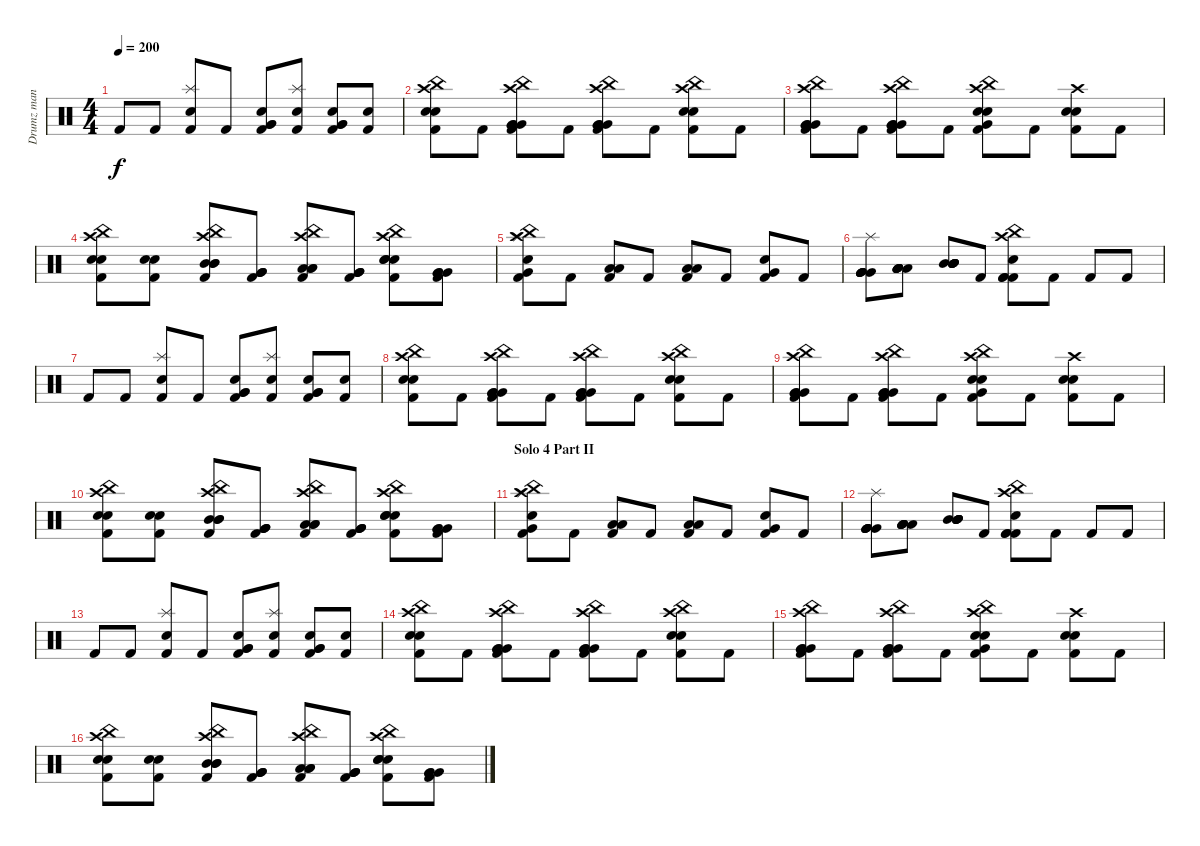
\track ("Drumz man" "Drumz man") {instrument percussion}
\staff {score}
\articulation defaults
\ts (4 4)
\tempo 200
\clef neutral
\ks c "Kick (hit) 2".8{dy f} "Kick (hit) 2".8
("Kick (hit) 2" "Splash (hit)" "Electric Snare (hit)").8 "Kick (hit) 2".8 ("Electric Snare (hit)" "Kick (hit) 2" "Very Low Tom (hit)" "Very Low Tom (hit)").8 ("Electric Snare (hit)" "Kick (hit) 2" "Splash (hit)").8 ("Electric Snare (hit)" "Kick (hit) 2" "Very Low Tom (hit)" "Very Low Tom (hit)").8 ("Electric Snare (hit)" "Kick (hit) 2").8 |
("Crash high (hit)" "China (hit)" "Kick (hit) 2" "Electric Snare (hit)" "Electric Snare (hit)").8 "Kick (hit) 2".8 ("Crash high (hit)" "China (hit)" "Kick (hit) 2" "Very Low Tom (hit)" "Very Low Tom (hit)" "Very Low Tom (hit)").8 "Kick (hit) 2".8 ("Crash high (hit)" "China (hit)" "Kick (hit) 2" "Very Low Tom (hit)" "Very Low Tom (hit)" "Very Low Tom (hit)").8 "Kick (hit) 2".8 ("Crash high (hit)" "China (hit)" "Kick (hit) 2" "Electric Snare (hit)" "Electric Snare (hit)").8 "Kick (hit) 2".8 |
("Crash high (hit)" "China (hit)" "Kick (hit) 2" "Very Low Tom (hit)" "Very Low Tom (hit)" "Very Low Tom (hit)").8 "Kick (hit) 2".8 ("Crash high (hit)" "China (hit)" "Kick (hit) 2" "Very Low Tom (hit)" "Very Low Tom (hit)" "Very Low Tom (hit)").8 "Kick (hit) 2".8 ("Crash high (hit)" "China (hit)" "Kick (hit) 2" "Very Low Tom (hit)" "Electric Snare (hit)" "Electric Snare (hit)").8 "Kick (hit) 2".8 ("Crash high (hit)" "Kick (hit) 2" "Electric Snare (hit)" "Electric Snare (hit)").8 "Kick (hit) 2".8 |
("Crash high (hit)" "China (hit)" "Kick (hit) 2" "Electric Snare (hit)" "Electric Snare (hit)").8 ("Kick (hit) 2" "Electric Snare (hit)" "Electric Snare (hit)").8 ("Crash high (hit)" "China (hit)" "Kick (hit) 2" "Mid Tom (hit)" "Mid Tom (hit)" "Mid Tom (hit)").8 ("Kick (hit) 2" "Very Low Tom (hit)" "Very Low Tom (hit)" "Very Low Tom (hit)").8 ("Crash high (hit)" "China (hit)" "Kick (hit) 2" "Low Floor Tom (hit)" "Low Floor Tom (hit)" "Low Floor Tom (hit)").8 ("Kick (hit) 2" "Very Low Tom (hit)" "Very Low Tom (hit)" "Very Low Tom (hit)").8 ("Crash high (hit)" "China (hit)" "Kick (hit) 2" "Electric Snare (hit)" "Electric Snare (hit)" "Electric Snare (hit)").8 ("Kick (hit) 2" "Very Low Tom (hit)" "Very Low Tom (hit)" "Very Low Tom (hit)").8 |
("China (hit)" "Crash high (hit)" "Kick (hit) 2" "Splash (hit)" "Very Low Tom (hit)" "Electric Snare (hit)").8 "Kick (hit) 2".8 ("Kick (hit) 2" "Low Floor Tom (hit)" "Low Floor Tom (hit)").8 "Kick (hit) 2".8 ("Kick (hit) 2" "Low Floor Tom (hit)" "Low Floor Tom (hit)").8 "Kick (hit) 2".8 ("Kick (hit) 2" "Very Low Tom (hit)" "Electric Snare (hit)").8 "Kick (hit) 2".8 |
("Very Low Tom (hit)" "Very Low Tom (hit)" "Very Low Tom (hit)" "Splash (hit)" "Very Low Tom (hit)" "Very Low Tom (hit)").8 ("Low Floor Tom (hit)" "Low Floor Tom (hit)" "Low Floor Tom (hit)" "Low Floor Tom (hit)" "Low Floor Tom (hit)" "Low Floor Tom (hit)").8 ("Mid Tom (hit)" "Mid Tom (hit)" "Mid Tom (hit)" "Mid Tom (hit)" "Mid Tom (hit)" "Mid Tom (hit)").8 "Kick (hit) 2".8 ("China (hit)" "Crash high (hit)" "Kick (hit) 2" "Kick (hit) 2" "Kick (hit) 2" "Electric Snare (hit)").8 "Kick (hit) 2".8 "Kick (hit) 2".8 "Kick (hit) 2".8 |
"Kick (hit) 2".8 "Kick (hit) 2".8 ("Kick (hit) 2" "Splash (hit)" "Electric Snare (hit)").8 "Kick (hit) 2".8 ("Electric Snare (hit)" "Kick (hit) 2" "Very Low Tom (hit)" "Very Low Tom (hit)").8 ("Electric Snare (hit)" "Kick (hit) 2" "Splash (hit)").8 ("Electric Snare (hit)" "Kick (hit) 2" "Very Low Tom (hit)" "Very Low Tom (hit)").8 ("Electric Snare (hit)" "Kick (hit) 2").8 |
("Crash high (hit)" "China (hit)" "Kick (hit) 2" "Electric Snare (hit)" "Electric Snare (hit)").8 "Kick (hit) 2".8 ("Crash high (hit)" "China (hit)" "Kick (hit) 2" "Very Low Tom (hit)" "Very Low Tom (hit)" "Very Low Tom (hit)").8 "Kick (hit) 2".8 ("Crash high (hit)" "China (hit)" "Kick (hit) 2" "Very Low Tom (hit)" "Very Low Tom (hit)" "Very Low Tom (hit)").8 "Kick (hit) 2".8 ("Crash high (hit)" "China (hit)" "Kick (hit) 2" "Electric Snare (hit)" "Electric Snare (hit)").8 "Kick (hit) 2".8 |
("Crash high (hit)" "China (hit)" "Kick (hit) 2" "Very Low Tom (hit)" "Very Low Tom (hit)" "Very Low Tom (hit)").8 "Kick (hit) 2".8 ("Crash high (hit)" "China (hit)" "Kick (hit) 2" "Very Low Tom (hit)" "Very Low Tom (hit)" "Very Low Tom (hit)").8 "Kick (hit) 2".8 ("Crash high (hit)" "China (hit)" "Kick (hit) 2" "Very Low Tom (hit)" "Electric Snare (hit)" "Electric Snare (hit)").8 "Kick (hit) 2".8 ("Crash high (hit)" "Kick (hit) 2" "Electric Snare (hit)" "Electric Snare (hit)").8 "Kick (hit) 2".8 |
("Crash high (hit)" "China (hit)" "Kick (hit) 2" "Electric Snare (hit)" "Electric Snare (hit)").8 ("Kick (hit) 2" "Electric Snare (hit)" "Electric Snare (hit)").8 ("Crash high (hit)" "China (hit)" "Kick (hit) 2" "Mid Tom (hit)" "Mid Tom (hit)" "Mid Tom (hit)").8 ("Kick (hit) 2" "Very Low Tom (hit)" "Very Low Tom (hit)" "Very Low Tom (hit)").8 ("Crash high (hit)" "China (hit)" "Kick (hit) 2" "Low Floor Tom (hit)" "Low Floor Tom (hit)" "Low Floor Tom (hit)").8 ("Kick (hit) 2" "Very Low Tom (hit)" "Very Low Tom (hit)" "Very Low Tom (hit)").8 ("Crash high (hit)" "China (hit)" "Kick (hit) 2" "Electric Snare (hit)" "Electric Snare (hit)" "Electric Snare (hit)").8 ("Kick (hit) 2" "Very Low Tom (hit)" "Very Low Tom (hit)" "Very Low Tom (hit)").8 |
\section ("" "Solo 4 Part II")
("China (hit)" "Crash high (hit)" "Kick (hit) 2" "Splash (hit)" "Very Low Tom (hit)" "Electric Snare (hit)").8{volume 14} "Kick (hit) 2".8 ("Kick (hit) 2" "Low Floor Tom (hit)" "Low Floor Tom (hit)").8 "Kick (hit) 2".8 ("Kick (hit) 2" "Low Floor Tom (hit)" "Low Floor Tom (hit)").8 "Kick (hit) 2".8 ("Kick (hit) 2" "Very Low Tom (hit)" "Electric Snare (hit)").8 "Kick (hit) 2".8 |
("Very Low Tom (hit)" "Very Low Tom (hit)" "Very Low Tom (hit)" "Splash (hit)" "Very Low Tom (hit)" "Very Low Tom (hit)").8 ("Low Floor Tom (hit)" "Low Floor Tom (hit)" "Low Floor Tom (hit)" "Low Floor Tom (hit)" "Low Floor Tom (hit)" "Low Floor Tom (hit)").8 ("Mid Tom (hit)" "Mid Tom (hit)" "Mid Tom (hit)" "Mid Tom (hit)" "Mid Tom (hit)" "Mid Tom (hit)").8 "Kick (hit) 2".8 ("China (hit)" "Crash high (hit)" "Kick (hit) 2" "Kick (hit) 2" "Kick (hit) 2" "Electric Snare (hit)").8 "Kick (hit) 2".8 "Kick (hit) 2".8 "Kick (hit) 2".8 |
"Kick (hit) 2".8 "Kick (hit) 2".8 ("Kick (hit) 2" "Splash (hit)" "Electric Snare (hit)").8 "Kick (hit) 2".8 ("Electric Snare (hit)" "Kick (hit) 2" "Very Low Tom (hit)" "Very Low Tom (hit)").8 ("Electric Snare (hit)" "Kick (hit) 2" "Splash (hit)").8 ("Electric Snare (hit)" "Kick (hit) 2" "Very Low Tom (hit)" "Very Low Tom (hit)").8 ("Electric Snare (hit)" "Kick (hit) 2").8 |
("Crash high (hit)" "China (hit)" "Kick (hit) 2" "Electric Snare (hit)" "Electric Snare (hit)").8 "Kick (hit) 2".8 ("Crash high (hit)" "China (hit)" "Kick (hit) 2" "Very Low Tom (hit)" "Very Low Tom (hit)" "Very Low Tom (hit)").8 "Kick (hit) 2".8 ("Crash high (hit)" "China (hit)" "Kick (hit) 2" "Very Low Tom (hit)" "Very Low Tom (hit)" "Very Low Tom (hit)").8 "Kick (hit) 2".8 ("Crash high (hit)" "China (hit)" "Kick (hit) 2" "Electric Snare (hit)" "Electric Snare (hit)").8 "Kick (hit) 2".8 |
("Crash high (hit)" "China (hit)" "Kick (hit) 2" "Very Low Tom (hit)" "Very Low Tom (hit)" "Very Low Tom (hit)").8 "Kick (hit) 2".8 ("Crash high (hit)" "China (hit)" "Kick (hit) 2" "Very Low Tom (hit)" "Very Low Tom (hit)" "Very Low Tom (hit)").8 "Kick (hit) 2".8 ("Crash high (hit)" "China (hit)" "Kick (hit) 2" "Very Low Tom (hit)" "Electric Snare (hit)" "Electric Snare (hit)").8 "Kick (hit) 2".8 ("Crash high (hit)" "Kick (hit) 2" "Electric Snare (hit)" "Electric Snare (hit)").8 "Kick (hit) 2".8 |
("Crash high (hit)" "China (hit)" "Kick (hit) 2" "Electric Snare (hit)" "Electric Snare (hit)").8 ("Kick (hit) 2" "Electric Snare (hit)" "Electric Snare (hit)").8 ("Crash high (hit)" "China (hit)" "Kick (hit) 2" "Mid Tom (hit)" "Mid Tom (hit)" "Mid Tom (hit)").8 ("Kick (hit) 2" "Very Low Tom (hit)" "Very Low Tom (hit)" "Very Low Tom (hit)").8 ("Crash high (hit)" "China (hit)" "Kick (hit) 2" "Low Floor Tom (hit)" "Low Floor Tom (hit)" "Low Floor Tom (hit)").8 ("Kick (hit) 2" "Very Low Tom (hit)" "Very Low Tom (hit)" "Very Low Tom (hit)").8 ("Crash high (hit)" "China (hit)" "Kick (hit) 2" "Electric Snare (hit)" "Electric Snare (hit)" "Electric Snare (hit)").8 ("Kick (hit) 2" "Very Low Tom (hit)" "Very Low Tom (hit)" "Very Low Tom (hit)").8
